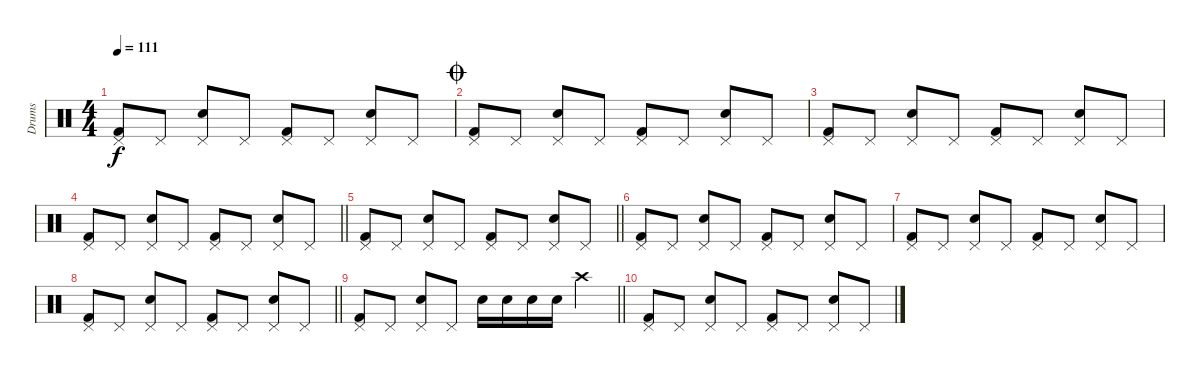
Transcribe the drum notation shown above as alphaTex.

\track ("Drums" "Drums") {instrument percussion}
\staff {score}
\articulation defaults
\ts (4 4)
\tempo 111
\clef neutral
\ks c
("Pedal Hi-Hat (hit)" "Kick (hit) 2").8{dy f} "Pedal Hi-Hat (hit)".8 ("Pedal Hi-Hat (hit)" "Snare (hit) 2").8 "Pedal Hi-Hat (hit)".8 ("Pedal Hi-Hat (hit)" "Kick (hit) 2").8 "Pedal Hi-Hat (hit)".8 ("Pedal Hi-Hat (hit)" "Snare (hit) 2").8 "Pedal Hi-Hat (hit)".8 |
\jump coda
("Pedal Hi-Hat (hit)" "Kick (hit) 2").8 "Pedal Hi-Hat (hit)".8 ("Pedal Hi-Hat (hit)" "Snare (hit) 2").8 "Pedal Hi-Hat (hit)".8 ("Pedal Hi-Hat (hit)" "Kick (hit) 2").8 "Pedal Hi-Hat (hit)".8 ("Pedal Hi-Hat (hit)" "Snare (hit) 2").8 "Pedal Hi-Hat (hit)".8 |
("Pedal Hi-Hat (hit)" "Kick (hit) 2").8 "Pedal Hi-Hat (hit)".8 ("Pedal Hi-Hat (hit)" "Snare (hit) 2").8 "Pedal Hi-Hat (hit)".8 ("Pedal Hi-Hat (hit)" "Kick (hit) 2").8 "Pedal Hi-Hat (hit)".8 ("Pedal Hi-Hat (hit)" "Snare (hit) 2").8 "Pedal Hi-Hat (hit)".8 |
\barLineRight lightlight
("Pedal Hi-Hat (hit)" "Kick (hit) 2").8 "Pedal Hi-Hat (hit)".8 ("Pedal Hi-Hat (hit)" "Snare (hit) 2").8 "Pedal Hi-Hat (hit)".8 ("Pedal Hi-Hat (hit)" "Kick (hit) 2").8 "Pedal Hi-Hat (hit)".8 ("Pedal Hi-Hat (hit)" "Snare (hit) 2").8 "Pedal Hi-Hat (hit)".8 |
\barLineRight lightlight
("Pedal Hi-Hat (hit)" "Kick (hit) 2").8 "Pedal Hi-Hat (hit)".8 ("Pedal Hi-Hat (hit)" "Snare (hit) 2").8 "Pedal Hi-Hat (hit)".8 ("Pedal Hi-Hat (hit)" "Kick (hit) 2").8 "Pedal Hi-Hat (hit)".8 ("Pedal Hi-Hat (hit)" "Snare (hit) 2").8 "Pedal Hi-Hat (hit)".8 |
("Pedal Hi-Hat (hit)" "Kick (hit) 2").8 "Pedal Hi-Hat (hit)".8 ("Pedal Hi-Hat (hit)" "Snare (hit) 2").8 "Pedal Hi-Hat (hit)".8 ("Pedal Hi-Hat (hit)" "Kick (hit) 2").8 "Pedal Hi-Hat (hit)".8 ("Pedal Hi-Hat (hit)" "Snare (hit) 2").8 "Pedal Hi-Hat (hit)".8 |
("Pedal Hi-Hat (hit)" "Kick (hit) 2").8 "Pedal Hi-Hat (hit)".8 ("Pedal Hi-Hat (hit)" "Snare (hit) 2").8 "Pedal Hi-Hat (hit)".8 ("Pedal Hi-Hat (hit)" "Kick (hit) 2").8 "Pedal Hi-Hat (hit)".8 ("Pedal Hi-Hat (hit)" "Snare (hit) 2").8 "Pedal Hi-Hat (hit)".8 |
\barLineRight lightlight
("Pedal Hi-Hat (hit)" "Kick (hit) 2").8 "Pedal Hi-Hat (hit)".8 ("Pedal Hi-Hat (hit)" "Snare (hit) 2").8 "Pedal Hi-Hat (hit)".8 ("Pedal Hi-Hat (hit)" "Kick (hit) 2").8 "Pedal Hi-Hat (hit)".8 ("Pedal Hi-Hat (hit)" "Snare (hit) 2").8 "Pedal Hi-Hat (hit)".8 |
\barLineRight lightlight
("Pedal Hi-Hat (hit)" "Kick (hit) 2").8 "Pedal Hi-Hat (hit)".8 ("Pedal Hi-Hat (hit)" "Snare (hit) 2").8 "Pedal Hi-Hat (hit)".8 "Snare (hit) 2".16 "Snare (hit) 2".16 "Snare (hit) 2".16 "Snare (hit) 2".16 "Crash high (hit)".4 |
("Pedal Hi-Hat (hit)" "Kick (hit) 2").8 "Pedal Hi-Hat (hit)".8 ("Pedal Hi-Hat (hit)" "Snare (hit) 2").8 "Pedal Hi-Hat (hit)".8 ("Pedal Hi-Hat (hit)" "Kick (hit) 2").8 "Pedal Hi-Hat (hit)".8 ("Pedal Hi-Hat (hit)" "Snare (hit) 2").8 "Pedal Hi-Hat (hit)".8
